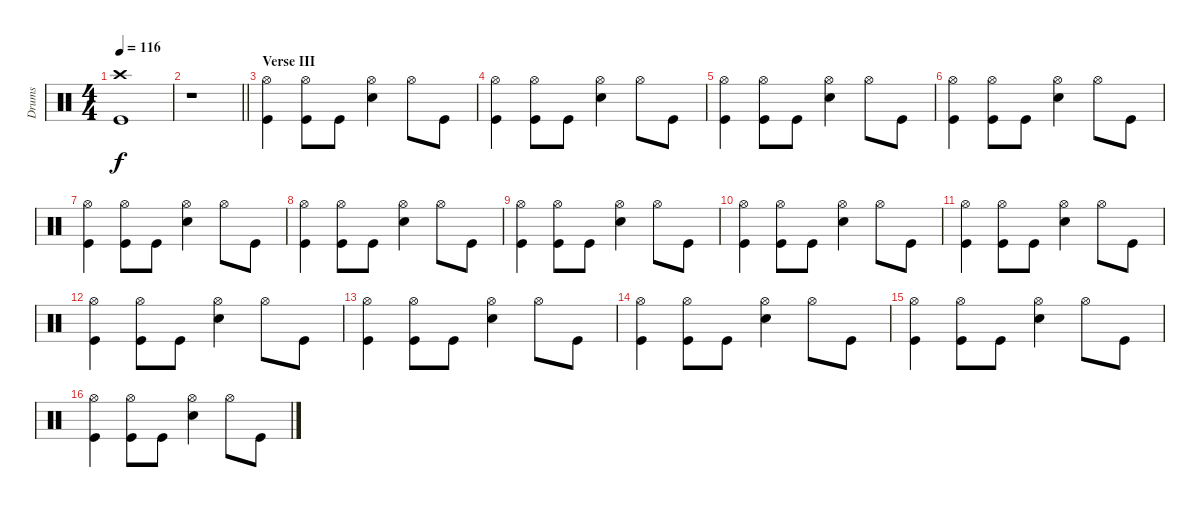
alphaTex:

\track ("Drums" "Drums") {instrument percussion}
\staff {score}
\articulation defaults
\ts (4 4)
\tempo 116
\clef neutral
\ks c
("Crash high (hit)" "Kick (hit)").1{dy f} |
\barLineRight lightlight
r.1 |
\section ("" "Verse III")
("Hi-Hat (open)" "Kick (hit)").4 ("Hi-Hat (open)" "Kick (hit)").8 "Kick (hit)".8 ("Hi-Hat (open)" "Electric Snare (hit)").4 "Hi-Hat (open)".8 "Kick (hit)".8 |
("Hi-Hat (open)" "Kick (hit)").4 ("Hi-Hat (open)" "Kick (hit)").8 "Kick (hit)".8 ("Hi-Hat (open)" "Electric Snare (hit)").4 "Hi-Hat (open)".8 "Kick (hit)".8 |
("Hi-Hat (open)" "Kick (hit)").4 ("Hi-Hat (open)" "Kick (hit)").8 "Kick (hit)".8 ("Hi-Hat (open)" "Electric Snare (hit)").4 "Hi-Hat (open)".8 "Kick (hit)".8 |
("Hi-Hat (open)" "Kick (hit)").4 ("Hi-Hat (open)" "Kick (hit)").8 "Kick (hit)".8 ("Hi-Hat (open)" "Electric Snare (hit)").4 "Hi-Hat (open)".8 "Kick (hit)".8 |
("Hi-Hat (open)" "Kick (hit)").4 ("Hi-Hat (open)" "Kick (hit)").8 "Kick (hit)".8 ("Hi-Hat (open)" "Electric Snare (hit)").4 "Hi-Hat (open)".8 "Kick (hit)".8 |
("Hi-Hat (open)" "Kick (hit)").4 ("Hi-Hat (open)" "Kick (hit)").8 "Kick (hit)".8 ("Hi-Hat (open)" "Electric Snare (hit)").4 "Hi-Hat (open)".8 "Kick (hit)".8 |
("Hi-Hat (open)" "Kick (hit)").4 ("Hi-Hat (open)" "Kick (hit)").8 "Kick (hit)".8 ("Hi-Hat (open)" "Electric Snare (hit)").4 "Hi-Hat (open)".8 "Kick (hit)".8 |
("Hi-Hat (open)" "Kick (hit)").4 ("Hi-Hat (open)" "Kick (hit)").8 "Kick (hit)".8 ("Hi-Hat (open)" "Electric Snare (hit)").4 "Hi-Hat (open)".8 "Kick (hit)".8 |
("Hi-Hat (open)" "Kick (hit)").4 ("Hi-Hat (open)" "Kick (hit)").8 "Kick (hit)".8 ("Hi-Hat (open)" "Electric Snare (hit)").4 "Hi-Hat (open)".8 "Kick (hit)".8 |
("Hi-Hat (open)" "Kick (hit)").4 ("Hi-Hat (open)" "Kick (hit)").8 "Kick (hit)".8 ("Hi-Hat (open)" "Electric Snare (hit)").4 "Hi-Hat (open)".8 "Kick (hit)".8 |
("Hi-Hat (open)" "Kick (hit)").4 ("Hi-Hat (open)" "Kick (hit)").8 "Kick (hit)".8 ("Hi-Hat (open)" "Electric Snare (hit)").4 "Hi-Hat (open)".8 "Kick (hit)".8 |
("Hi-Hat (open)" "Kick (hit)").4 ("Hi-Hat (open)" "Kick (hit)").8 "Kick (hit)".8 ("Hi-Hat (open)" "Electric Snare (hit)").4 "Hi-Hat (open)".8 "Kick (hit)".8 |
("Hi-Hat (open)" "Kick (hit)").4 ("Hi-Hat (open)" "Kick (hit)").8 "Kick (hit)".8 ("Hi-Hat (open)" "Electric Snare (hit)").4 "Hi-Hat (open)".8 "Kick (hit)".8 |
("Hi-Hat (open)" "Kick (hit)").4 ("Hi-Hat (open)" "Kick (hit)").8 "Kick (hit)".8 ("Hi-Hat (open)" "Electric Snare (hit)").4 "Hi-Hat (open)".8 "Kick (hit)".8
